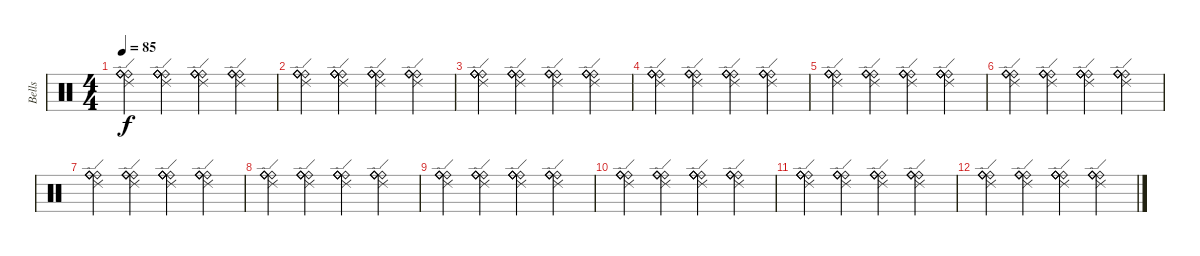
\track ("Bells" "Bells") {instrument percussion}
\staff {score}
\articulation defaults
\ts (4 4)
\tempo 85
\clef neutral
\ks c
("Ride (bell)" "Ride (bell)" "Ride (bell)" "Ride (bell)" "Ride (edge) 2").4{dy f} ("Ride (bell)" "Ride (bell)" "Ride (bell)" "Ride (bell)" "Ride (edge) 2").4 ("Ride (bell)" "Ride (bell)" "Ride (bell)" "Ride (bell)" "Ride (edge) 2").4 ("Ride (bell)" "Ride (bell)" "Ride (bell)" "Ride (bell)" "Ride (edge) 2").4 |
("Ride (bell)" "Ride (bell)" "Ride (bell)" "Ride (bell)" "Ride (edge) 2").4 ("Ride (bell)" "Ride (bell)" "Ride (bell)" "Ride (bell)" "Ride (edge) 2").4 ("Ride (bell)" "Ride (bell)" "Ride (bell)" "Ride (bell)" "Ride (edge) 2").4 ("Ride (bell)" "Ride (bell)" "Ride (bell)" "Ride (bell)" "Ride (edge) 2").4 |
("Ride (bell)" "Ride (bell)" "Ride (bell)" "Ride (bell)" "Ride (edge) 2").4 ("Ride (bell)" "Ride (bell)" "Ride (bell)" "Ride (bell)" "Ride (edge) 2").4 ("Ride (bell)" "Ride (bell)" "Ride (bell)" "Ride (bell)" "Ride (edge) 2").4 ("Ride (bell)" "Ride (bell)" "Ride (bell)" "Ride (bell)" "Ride (edge) 2").4 |
("Ride (bell)" "Ride (bell)" "Ride (bell)" "Ride (bell)" "Ride (edge) 2").4 ("Ride (bell)" "Ride (bell)" "Ride (bell)" "Ride (bell)" "Ride (edge) 2").4 ("Ride (bell)" "Ride (bell)" "Ride (bell)" "Ride (bell)" "Ride (edge) 2").4 ("Ride (bell)" "Ride (bell)" "Ride (bell)" "Ride (bell)" "Ride (edge) 2").4 |
("Ride (bell)" "Ride (bell)" "Ride (bell)" "Ride (bell)" "Ride (edge) 2").4 ("Ride (bell)" "Ride (bell)" "Ride (bell)" "Ride (bell)" "Ride (edge) 2").4 ("Ride (bell)" "Ride (bell)" "Ride (bell)" "Ride (bell)" "Ride (edge) 2").4 ("Ride (bell)" "Ride (bell)" "Ride (bell)" "Ride (bell)" "Ride (edge) 2").4 |
("Ride (bell)" "Ride (bell)" "Ride (bell)" "Ride (bell)" "Ride (edge) 2").4 ("Ride (bell)" "Ride (bell)" "Ride (bell)" "Ride (bell)" "Ride (edge) 2").4 ("Ride (bell)" "Ride (bell)" "Ride (bell)" "Ride (bell)" "Ride (edge) 2").4 ("Ride (bell)" "Ride (bell)" "Ride (bell)" "Ride (bell)" "Ride (edge) 2").4 |
("Ride (bell)" "Ride (bell)" "Ride (bell)" "Ride (bell)" "Ride (edge) 2").4 ("Ride (bell)" "Ride (bell)" "Ride (bell)" "Ride (bell)" "Ride (edge) 2").4 ("Ride (bell)" "Ride (bell)" "Ride (bell)" "Ride (bell)" "Ride (edge) 2").4 ("Ride (bell)" "Ride (bell)" "Ride (bell)" "Ride (bell)" "Ride (edge) 2").4 |
("Ride (bell)" "Ride (bell)" "Ride (bell)" "Ride (bell)" "Ride (edge) 2").4 ("Ride (bell)" "Ride (bell)" "Ride (bell)" "Ride (bell)" "Ride (edge) 2").4 ("Ride (bell)" "Ride (bell)" "Ride (bell)" "Ride (bell)" "Ride (edge) 2").4 ("Ride (bell)" "Ride (bell)" "Ride (bell)" "Ride (bell)" "Ride (edge) 2").4 |
("Ride (bell)" "Ride (bell)" "Ride (bell)" "Ride (bell)" "Ride (edge) 2").4 ("Ride (bell)" "Ride (bell)" "Ride (bell)" "Ride (bell)" "Ride (edge) 2").4 ("Ride (bell)" "Ride (bell)" "Ride (bell)" "Ride (bell)" "Ride (edge) 2").4 ("Ride (bell)" "Ride (bell)" "Ride (bell)" "Ride (bell)" "Ride (edge) 2").4 |
("Ride (bell)" "Ride (bell)" "Ride (bell)" "Ride (bell)" "Ride (edge) 2").4 ("Ride (bell)" "Ride (bell)" "Ride (bell)" "Ride (bell)" "Ride (edge) 2").4 ("Ride (bell)" "Ride (bell)" "Ride (bell)" "Ride (bell)" "Ride (edge) 2").4 ("Ride (bell)" "Ride (bell)" "Ride (bell)" "Ride (bell)" "Ride (edge) 2").4 |
("Ride (bell)" "Ride (bell)" "Ride (bell)" "Ride (bell)" "Ride (edge) 2").4 ("Ride (bell)" "Ride (bell)" "Ride (bell)" "Ride (bell)" "Ride (edge) 2").4 ("Ride (bell)" "Ride (bell)" "Ride (bell)" "Ride (bell)" "Ride (edge) 2").4 ("Ride (bell)" "Ride (bell)" "Ride (bell)" "Ride (bell)" "Ride (edge) 2").4 |
("Ride (bell)" "Ride (bell)" "Ride (bell)" "Ride (bell)" "Ride (edge) 2").4 ("Ride (bell)" "Ride (bell)" "Ride (bell)" "Ride (bell)" "Ride (edge) 2").4 ("Ride (bell)" "Ride (bell)" "Ride (bell)" "Ride (bell)" "Ride (edge) 2").4 ("Ride (bell)" "Ride (bell)" "Ride (bell)" "Ride (bell)" "Ride (edge) 2").4
